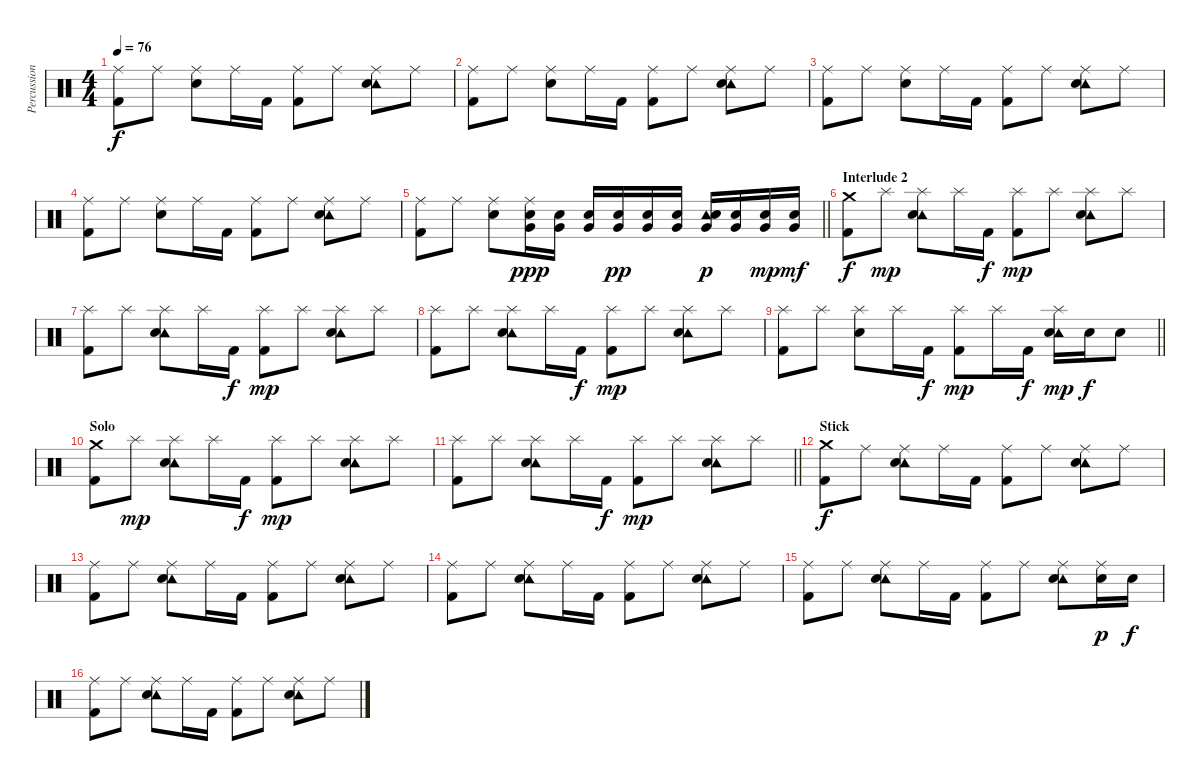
\track ("Percussion" "Percussion") {instrument percussion}
\staff {score}
\articulation defaults
\ts (4 4)
\tempo 76
\clef neutral
\ks c
("Ride (middle)" "Kick (hit) 2").8{dy f} "Ride (middle)".8 ("Ride (middle)" "Electric Snare (hit)").8 "Ride (middle)".16 "Kick (hit) 2".16 ("Ride (middle)" "Kick (hit) 2").8 "Ride (middle)".8 ("Ride (middle)" "Tambourine (hit)" "Electric Snare (hit)").8 "Ride (middle)".8 |
("Ride (middle)" "Kick (hit) 2").8 "Ride (middle)".8 ("Ride (middle)" "Electric Snare (hit)").8 "Ride (middle)".16 "Kick (hit) 2".16 ("Ride (middle)" "Kick (hit) 2").8 "Ride (middle)".8 ("Ride (middle)" "Tambourine (hit)" "Electric Snare (hit)").8 "Ride (middle)".8 |
("Ride (middle)" "Kick (hit) 2").8 "Ride (middle)".8 ("Ride (middle)" "Electric Snare (hit)").8 "Ride (middle)".16 "Kick (hit) 2".16 ("Ride (middle)" "Kick (hit) 2").8 "Ride (middle)".8 ("Ride (middle)" "Tambourine (hit)" "Electric Snare (hit)").8 "Ride (middle)".8 |
("Ride (middle)" "Kick (hit) 2").8 "Ride (middle)".8 ("Ride (middle)" "Electric Snare (hit)").8 "Ride (middle)".16 "Kick (hit) 2".16 ("Ride (middle)" "Kick (hit) 2").8 "Ride (middle)".8 ("Ride (middle)" "Tambourine (hit)" "Electric Snare (hit)").8 "Ride (middle)".8 |
\barLineRight lightlight
("Ride (middle)" "Kick (hit) 2").8 "Ride (middle)".8 ("Ride (middle)" "Electric Snare (hit)").8 ("Ride (middle)" "Very Low Tom (hit)" "Electric Snare (hit)").16{dy ppp} ("Very Low Tom (hit)" "Electric Snare (hit)").16 ("Very Low Tom (hit)" "Electric Snare (hit)").16 ("Very Low Tom (hit)" "Electric Snare (hit)").16{dy pp} ("Very Low Tom (hit)" "Electric Snare (hit)").16 ("Very Low Tom (hit)" "Electric Snare (hit)").16 ("Tambourine (hit)" "Very Low Tom (hit)" "Electric Snare (hit)").16{dy p} ("Very Low Tom (hit)" "Electric Snare (hit)").16 ("Very Low Tom (hit)" "Electric Snare (hit)").16{dy mp} ("Very Low Tom (hit)" "Electric Snare (hit)").16{dy mf} |
\section ("" "Interlude 2")
("Crash medium (hit)" "Kick (hit) 2").8{dy f} "Splash (hit)".8{dy mp} ("Splash (hit)" "Tambourine (hit)" "Electric Snare (hit)").8 "Splash (hit)".16 "Kick (hit) 2".16{dy f} ("Splash (hit)" "Kick (hit) 2").8{dy mp} "Splash (hit)".8 ("Splash (hit)" "Tambourine (hit)" "Electric Snare (hit)").8 "Splash (hit)".8 |
("Splash (hit)" "Kick (hit) 2").8 "Splash (hit)".8 ("Splash (hit)" "Tambourine (hit)" "Electric Snare (hit)").8 "Splash (hit)".16 "Kick (hit) 2".16{dy f} ("Splash (hit)" "Kick (hit) 2").8{dy mp} "Splash (hit)".8 ("Splash (hit)" "Tambourine (hit)" "Electric Snare (hit)").8 "Splash (hit)".8 |
("Splash (hit)" "Kick (hit) 2").8 "Splash (hit)".8 ("Splash (hit)" "Tambourine (hit)" "Electric Snare (hit)").8 "Splash (hit)".16 "Kick (hit) 2".16{dy f} ("Splash (hit)" "Kick (hit) 2").8{dy mp} "Splash (hit)".8 ("Splash (hit)" "Tambourine (hit)" "Electric Snare (hit)").8 "Splash (hit)".8 |
\barLineRight lightlight
("Splash (hit)" "Kick (hit) 2").8 "Splash (hit)".8 ("Splash (hit)" "Electric Snare (hit)").8 "Splash (hit)".16 "Kick (hit) 2".16{dy f} ("Splash (hit)" "Kick (hit) 2").8{dy mp} "Splash (hit)".16 "Kick (hit) 2".16{dy f} ("Splash (hit)" "Tambourine (hit)" "Electric Snare (hit)").16{dy mp} "Electric Snare (hit)".16{dy f} "Electric Snare (hit)".8 |
\section ("" "Solo")
("Crash medium (hit)" "Kick (hit) 2").8 "Splash (hit)".8{dy mp} ("Splash (hit)" "Tambourine (hit)" "Electric Snare (hit)").8 "Splash (hit)".16 "Kick (hit) 2".16{dy f} ("Splash (hit)" "Kick (hit) 2").8{dy mp} "Splash (hit)".8 ("Splash (hit)" "Tambourine (hit)" "Electric Snare (hit)").8 "Splash (hit)".8 |
\barLineRight lightlight
("Splash (hit)" "Kick (hit) 2").8 "Splash (hit)".8 ("Splash (hit)" "Tambourine (hit)" "Electric Snare (hit)").8 "Splash (hit)".16 "Kick (hit) 2".16{dy f} ("Splash (hit)" "Kick (hit) 2").8{dy mp} "Splash (hit)".8 ("Splash (hit)" "Tambourine (hit)" "Electric Snare (hit)").8 "Splash (hit)".8 |
\section ("" "Stick")
("Crash medium (hit)" "Kick (hit) 2").8{dy f} "Ride (middle)".8 ("Ride (middle)" "Tambourine (hit)" "Electric Snare (hit)").8 "Ride (middle)".16 "Kick (hit) 2".16 ("Ride (middle)" "Kick (hit) 2").8 "Ride (middle)".8 ("Ride (middle)" "Tambourine (hit)" "Electric Snare (hit)").8 "Ride (middle)".8 |
("Ride (middle)" "Kick (hit) 2").8 "Ride (middle)".8 ("Ride (middle)" "Tambourine (hit)" "Electric Snare (hit)").8 "Ride (middle)".16 "Kick (hit) 2".16 ("Ride (middle)" "Kick (hit) 2").8 "Ride (middle)".8 ("Ride (middle)" "Tambourine (hit)" "Electric Snare (hit)").8 "Ride (middle)".8 |
("Ride (middle)" "Kick (hit) 2").8 "Ride (middle)".8 ("Ride (middle)" "Tambourine (hit)" "Electric Snare (hit)").8 "Ride (middle)".16 "Kick (hit) 2".16 ("Ride (middle)" "Kick (hit) 2").8 "Ride (middle)".8 ("Ride (middle)" "Tambourine (hit)" "Electric Snare (hit)").8 "Ride (middle)".8 |
("Ride (middle)" "Kick (hit) 2").8 "Ride (middle)".8 ("Ride (middle)" "Tambourine (hit)" "Electric Snare (hit)").8 "Ride (middle)".16 "Kick (hit) 2".16 ("Ride (middle)" "Kick (hit) 2").8 "Ride (middle)".8 ("Ride (middle)" "Tambourine (hit)" "Electric Snare (hit)").8 ("Ride (middle)" "Electric Snare (hit)").16{dy p} "Electric Snare (hit)".16{dy f} |
("Ride (middle)" "Kick (hit) 2").8 "Ride (middle)".8 ("Ride (middle)" "Tambourine (hit)" "Electric Snare (hit)").8 "Ride (middle)".16 "Kick (hit) 2".16 ("Ride (middle)" "Kick (hit) 2").8 "Ride (middle)".8 ("Ride (middle)" "Tambourine (hit)" "Electric Snare (hit)").8 "Ride (middle)".8
